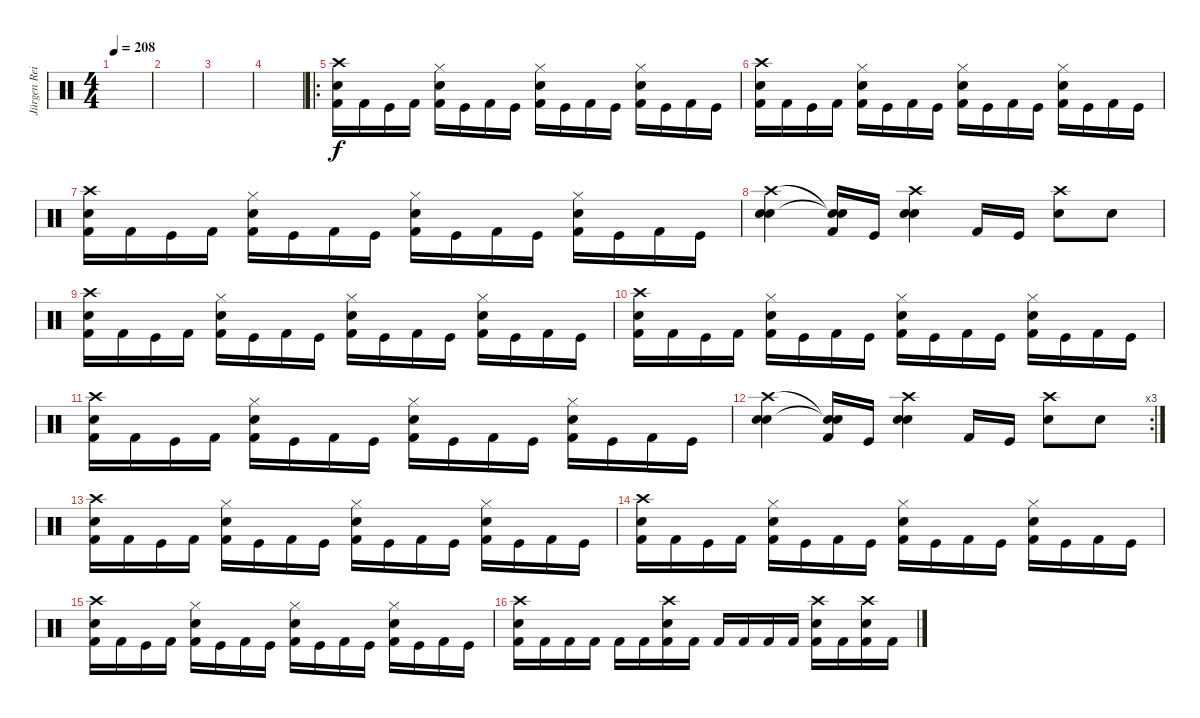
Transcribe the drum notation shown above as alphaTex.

\track ("Jürgen Reil" "Jürgen Rei") {instrument percussion}
\staff {score}
\articulation defaults
\ts (4 4)
\tempo 208
\clef neutral
\ks c
|
|
|
|
\ro
("Crash high (hit)" "Electric Snare (hit)" "Kick (hit) 2").16 "Kick (hit) 2".16 "Kick (hit)".16 "Kick (hit) 2".16 ("Hi-Hat (closed)" "Electric Snare (hit)" "Kick (hit) 2").16 "Kick (hit)".16 "Kick (hit) 2".16 "Kick (hit)".16 ("Hi-Hat (closed)" "Electric Snare (hit)" "Kick (hit) 2").16 "Kick (hit)".16 "Kick (hit) 2".16 "Kick (hit)".16 ("Hi-Hat (closed)" "Electric Snare (hit)" "Kick (hit) 2").16 "Kick (hit)".16 "Kick (hit) 2".16 "Kick (hit)".16 |
("Crash high (hit)" "Electric Snare (hit)" "Kick (hit) 2").16 "Kick (hit) 2".16 "Kick (hit)".16 "Kick (hit) 2".16 ("Hi-Hat (closed)" "Electric Snare (hit)" "Kick (hit) 2").16 "Kick (hit)".16 "Kick (hit) 2".16 "Kick (hit)".16 ("Hi-Hat (closed)" "Electric Snare (hit)" "Kick (hit) 2").16 "Kick (hit)".16 "Kick (hit) 2".16 "Kick (hit)".16 ("Hi-Hat (closed)" "Electric Snare (hit)" "Kick (hit) 2").16 "Kick (hit)".16 "Kick (hit) 2".16 "Kick (hit)".16 |
("Crash high (hit)" "Electric Snare (hit)" "Kick (hit) 2").16 "Kick (hit) 2".16 "Kick (hit)".16 "Kick (hit) 2".16 ("Hi-Hat (closed)" "Electric Snare (hit)" "Kick (hit) 2").16 "Kick (hit)".16 "Kick (hit) 2".16 "Kick (hit)".16 ("Hi-Hat (closed)" "Electric Snare (hit)" "Kick (hit) 2").16 "Kick (hit)".16 "Kick (hit) 2".16 "Kick (hit)".16 ("Hi-Hat (closed)" "Electric Snare (hit)" "Kick (hit) 2").16 "Kick (hit)".16 "Kick (hit) 2".16 "Kick (hit)".16 |
("Crash high (hit)" "Electric Snare (hit)" "Electric Snare (hit)").4 ("Snare (hit)"{t} "Snare (hit)"{t} "Kick (hit) 2").16 "Kick (hit)".16 ("Crash high (hit)" "Electric Snare (hit)" "Electric Snare (hit)").4 "Kick (hit) 2".16 "Kick (hit)".16 ("Crash high (hit)" "Electric Snare (hit)").8 "Electric Snare (hit)".8 |
("Crash high (hit)" "Electric Snare (hit)" "Kick (hit) 2").16 "Kick (hit) 2".16 "Kick (hit)".16 "Kick (hit) 2".16 ("Hi-Hat (closed)" "Electric Snare (hit)" "Kick (hit) 2").16 "Kick (hit)".16 "Kick (hit) 2".16 "Kick (hit)".16 ("Hi-Hat (closed)" "Electric Snare (hit)" "Kick (hit) 2").16 "Kick (hit)".16 "Kick (hit) 2".16 "Kick (hit)".16 ("Hi-Hat (closed)" "Electric Snare (hit)" "Kick (hit) 2").16 "Kick (hit)".16 "Kick (hit) 2".16 "Kick (hit)".16 |
("Crash high (hit)" "Electric Snare (hit)" "Kick (hit) 2").16 "Kick (hit) 2".16 "Kick (hit)".16 "Kick (hit) 2".16 ("Hi-Hat (closed)" "Electric Snare (hit)" "Kick (hit) 2").16 "Kick (hit)".16 "Kick (hit) 2".16 "Kick (hit)".16 ("Hi-Hat (closed)" "Electric Snare (hit)" "Kick (hit) 2").16 "Kick (hit)".16 "Kick (hit) 2".16 "Kick (hit)".16 ("Hi-Hat (closed)" "Electric Snare (hit)" "Kick (hit) 2").16 "Kick (hit)".16 "Kick (hit) 2".16 "Kick (hit)".16 |
("Crash high (hit)" "Electric Snare (hit)" "Kick (hit) 2").16 "Kick (hit) 2".16 "Kick (hit)".16 "Kick (hit) 2".16 ("Hi-Hat (closed)" "Electric Snare (hit)" "Kick (hit) 2").16 "Kick (hit)".16 "Kick (hit) 2".16 "Kick (hit)".16 ("Hi-Hat (closed)" "Electric Snare (hit)" "Kick (hit) 2").16 "Kick (hit)".16 "Kick (hit) 2".16 "Kick (hit)".16 ("Hi-Hat (closed)" "Electric Snare (hit)" "Kick (hit) 2").16 "Kick (hit)".16 "Kick (hit) 2".16 "Kick (hit)".16 |
\rc 3
("Crash high (hit)" "Electric Snare (hit)" "Electric Snare (hit)").4 ("Snare (hit)"{t} "Snare (hit)"{t} "Kick (hit) 2").16 "Kick (hit)".16 ("Crash high (hit)" "Electric Snare (hit)" "Electric Snare (hit)").4 "Kick (hit) 2".16 "Kick (hit)".16 ("Crash high (hit)" "Electric Snare (hit)").8 "Electric Snare (hit)".8 |
("Crash high (hit)" "Electric Snare (hit)" "Kick (hit) 2").16 "Kick (hit) 2".16 "Kick (hit)".16 "Kick (hit) 2".16 ("Hi-Hat (closed)" "Electric Snare (hit)" "Kick (hit) 2").16 "Kick (hit)".16 "Kick (hit) 2".16 "Kick (hit)".16 ("Hi-Hat (closed)" "Electric Snare (hit)" "Kick (hit) 2").16 "Kick (hit)".16 "Kick (hit) 2".16 "Kick (hit)".16 ("Hi-Hat (closed)" "Electric Snare (hit)" "Kick (hit) 2").16 "Kick (hit)".16 "Kick (hit) 2".16 "Kick (hit)".16 |
("Crash high (hit)" "Electric Snare (hit)" "Kick (hit) 2").16 "Kick (hit) 2".16 "Kick (hit)".16 "Kick (hit) 2".16 ("Hi-Hat (closed)" "Electric Snare (hit)" "Kick (hit) 2").16 "Kick (hit)".16 "Kick (hit) 2".16 "Kick (hit)".16 ("Hi-Hat (closed)" "Electric Snare (hit)" "Kick (hit) 2").16 "Kick (hit)".16 "Kick (hit) 2".16 "Kick (hit)".16 ("Hi-Hat (closed)" "Electric Snare (hit)" "Kick (hit) 2").16 "Kick (hit)".16 "Kick (hit) 2".16 "Kick (hit)".16 |
("Crash high (hit)" "Electric Snare (hit)" "Kick (hit) 2").16 "Kick (hit) 2".16 "Kick (hit)".16 "Kick (hit) 2".16 ("Hi-Hat (closed)" "Electric Snare (hit)" "Kick (hit) 2").16 "Kick (hit)".16 "Kick (hit) 2".16 "Kick (hit)".16 ("Hi-Hat (closed)" "Electric Snare (hit)" "Kick (hit) 2").16 "Kick (hit)".16 "Kick (hit) 2".16 "Kick (hit)".16 ("Hi-Hat (closed)" "Electric Snare (hit)" "Kick (hit) 2").16 "Kick (hit)".16 "Kick (hit) 2".16 "Kick (hit)".16 |
("Crash high (hit)" "Electric Snare (hit)" "Kick (hit) 2").16 "Kick (hit) 2".16 "Kick (hit) 2".16 "Kick (hit) 2".16 "Kick (hit) 2".16 "Kick (hit) 2".16 ("Crash high (hit)" "Electric Snare (hit)" "Kick (hit) 2").16 "Kick (hit) 2".16 "Kick (hit) 2".16 "Kick (hit) 2".16 "Kick (hit) 2".16 "Kick (hit) 2".16 ("Crash high (hit)" "Electric Snare (hit)" "Kick (hit) 2").16 "Kick (hit) 2".16 ("Crash high (hit)" "Electric Snare (hit)" "Kick (hit) 2").16 "Kick (hit) 2".16
